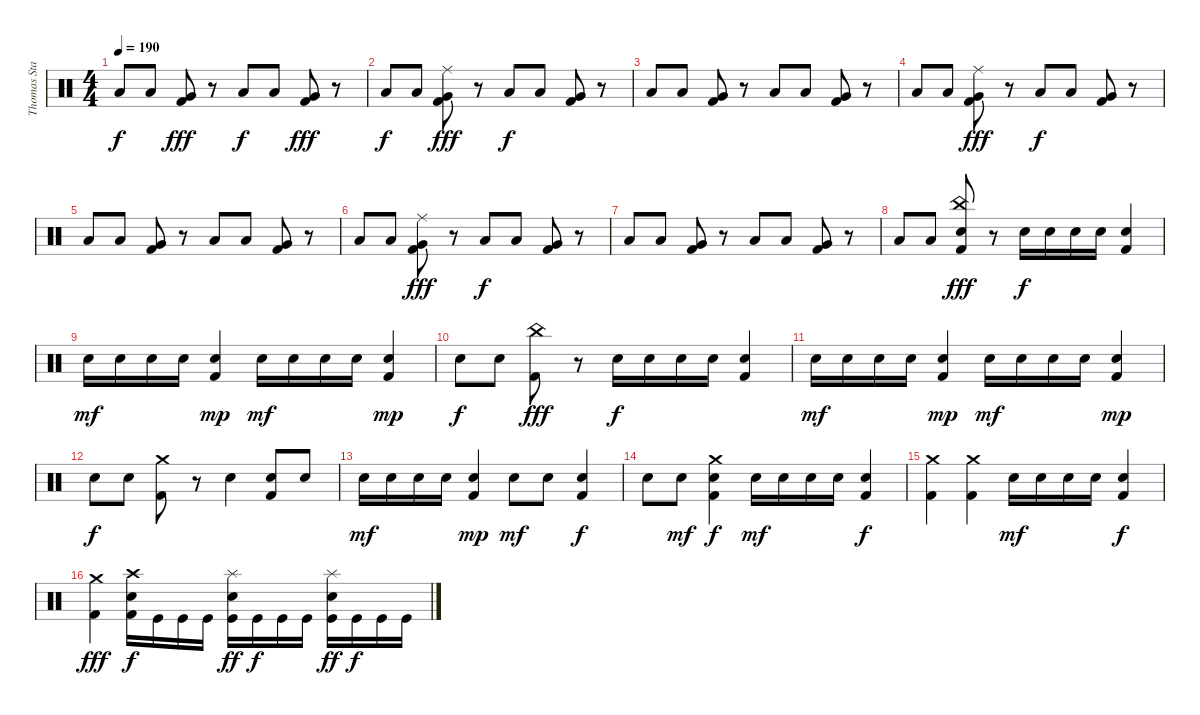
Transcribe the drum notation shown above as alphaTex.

\track ("Thomas Stauch" "Thomas Sta") {instrument percussion}
\staff {score}
\articulation defaults
\ts (4 4)
\tempo 190
\clef neutral
\ks c "Low Tom (hit)".8{dy f} "Low Tom (hit)".8
("Very Low Tom (hit)" "Kick (hit) 2").8{dy fff} r.8 "Low Tom (hit)".8{dy f} "Low Tom (hit)".8 ("Very Low Tom (hit)" "Kick (hit) 2").8{dy fff} r.8 |
"Low Tom (hit)".8{dy f} "Low Tom (hit)".8 ("Ride (middle)" "Very Low Tom (hit)" "Kick (hit) 2").8{dy fff} r.8 "Low Tom (hit)".8{dy f} "Low Tom (hit)".8 ("Very Low Tom (hit)" "Kick (hit) 2").8 r.8 |
"Low Tom (hit)".8 "Low Tom (hit)".8 ("Very Low Tom (hit)" "Kick (hit) 2").8 r.8 "Low Tom (hit)".8 "Low Tom (hit)".8 ("Very Low Tom (hit)" "Kick (hit) 2").8 r.8 |
"Low Tom (hit)".8 "Low Tom (hit)".8 ("Ride (middle)" "Very Low Tom (hit)" "Kick (hit) 2").8{dy fff} r.8 "Low Tom (hit)".8{dy f} "Low Tom (hit)".8 ("Very Low Tom (hit)" "Kick (hit) 2").8 r.8 |
"Low Tom (hit)".8 "Low Tom (hit)".8 ("Very Low Tom (hit)" "Kick (hit) 2").8 r.8 "Low Tom (hit)".8 "Low Tom (hit)".8 ("Very Low Tom (hit)" "Kick (hit) 2").8 r.8 |
"Low Tom (hit)".8 "Low Tom (hit)".8 ("Ride (middle)" "Very Low Tom (hit)" "Kick (hit) 2").8{dy fff} r.8 "Low Tom (hit)".8{dy f} "Low Tom (hit)".8 ("Very Low Tom (hit)" "Kick (hit) 2").8 r.8 |
"Low Tom (hit)".8 "Low Tom (hit)".8 ("Very Low Tom (hit)" "Kick (hit) 2").8 r.8 "Low Tom (hit)".8 "Low Tom (hit)".8 ("Very Low Tom (hit)" "Kick (hit) 2").8 r.8 |
"Low Tom (hit)".8 "Low Tom (hit)".8 ("China (hit)" "Electric Snare (hit)" "Kick (hit) 2").8{dy fff} r.8 "Electric Snare (hit)".16{dy f} "Electric Snare (hit)".16 "Electric Snare (hit)".16 "Electric Snare (hit)".16 ("Electric Snare (hit)" "Kick (hit) 2").4 |
"Electric Snare (hit)".16{dy mf} "Electric Snare (hit)".16 "Electric Snare (hit)".16 "Electric Snare (hit)".16 ("Electric Snare (hit)" "Kick (hit) 2").4{dy mp} "Electric Snare (hit)".16{dy mf} "Electric Snare (hit)".16 "Electric Snare (hit)".16 "Electric Snare (hit)".16 ("Electric Snare (hit)" "Kick (hit) 2").4{dy mp} |
"Electric Snare (hit)".8{dy f} "Electric Snare (hit)".8 ("China (hit)" "Kick (hit) 2").8{dy fff} r.8 "Electric Snare (hit)".16{dy f} "Electric Snare (hit)".16 "Electric Snare (hit)".16 "Electric Snare (hit)".16 ("Electric Snare (hit)" "Kick (hit) 2").4 |
"Electric Snare (hit)".16{dy mf} "Electric Snare (hit)".16 "Electric Snare (hit)".16 "Electric Snare (hit)".16 ("Electric Snare (hit)" "Kick (hit) 2").4{dy mp} "Electric Snare (hit)".16{dy mf} "Electric Snare (hit)".16 "Electric Snare (hit)".16 "Electric Snare (hit)".16 ("Electric Snare (hit)" "Kick (hit) 2").4{dy mp} |
"Electric Snare (hit)".8{dy f} "Electric Snare (hit)".8 ("Crash medium (hit)" "Kick (hit) 2").8 r.8 "Electric Snare (hit)".4 ("Electric Snare (hit)" "Kick (hit) 2").8 "Electric Snare (hit)".8 |
"Electric Snare (hit)".16{dy mf} "Electric Snare (hit)".16 "Electric Snare (hit)".16 "Electric Snare (hit)".16 ("Electric Snare (hit)" "Kick (hit) 2").4{dy mp} "Electric Snare (hit)".8{dy mf} "Electric Snare (hit)".8 ("Electric Snare (hit)" "Kick (hit) 2").4{dy f} |
"Electric Snare (hit)".8 "Electric Snare (hit)".8{dy mf} ("Crash medium (hit)" "Electric Snare (hit)" "Kick (hit) 2").4{dy f} "Electric Snare (hit)".16{dy mf} "Electric Snare (hit)".16 "Electric Snare (hit)".16 "Electric Snare (hit)".16 ("Electric Snare (hit)" "Kick (hit) 2").4{dy f} |
("Crash medium (hit)" "Kick (hit) 2").4 ("Crash medium (hit)" "Kick (hit) 2").4 "Electric Snare (hit)".16{dy mf} "Electric Snare (hit)".16 "Electric Snare (hit)".16 "Electric Snare (hit)".16 ("Electric Snare (hit)" "Kick (hit) 2").4{dy f} |
("Crash medium (hit)" "Kick (hit) 2").4{dy fff} ("Crash high (hit)" "Electric Snare (hit)" "Kick (hit) 2").16{dy f} "Kick (hit)".16 "Kick (hit)".16 "Kick (hit)".16 ("Splash (hit)" "Electric Snare (hit)" "Kick (hit)").16{dy ff} "Kick (hit)".16{dy f} "Kick (hit)".16 "Kick (hit)".16 ("Splash (hit)" "Electric Snare (hit)" "Kick (hit)").16{dy ff} "Kick (hit)".16{dy f} "Kick (hit)".16 "Kick (hit)".16
